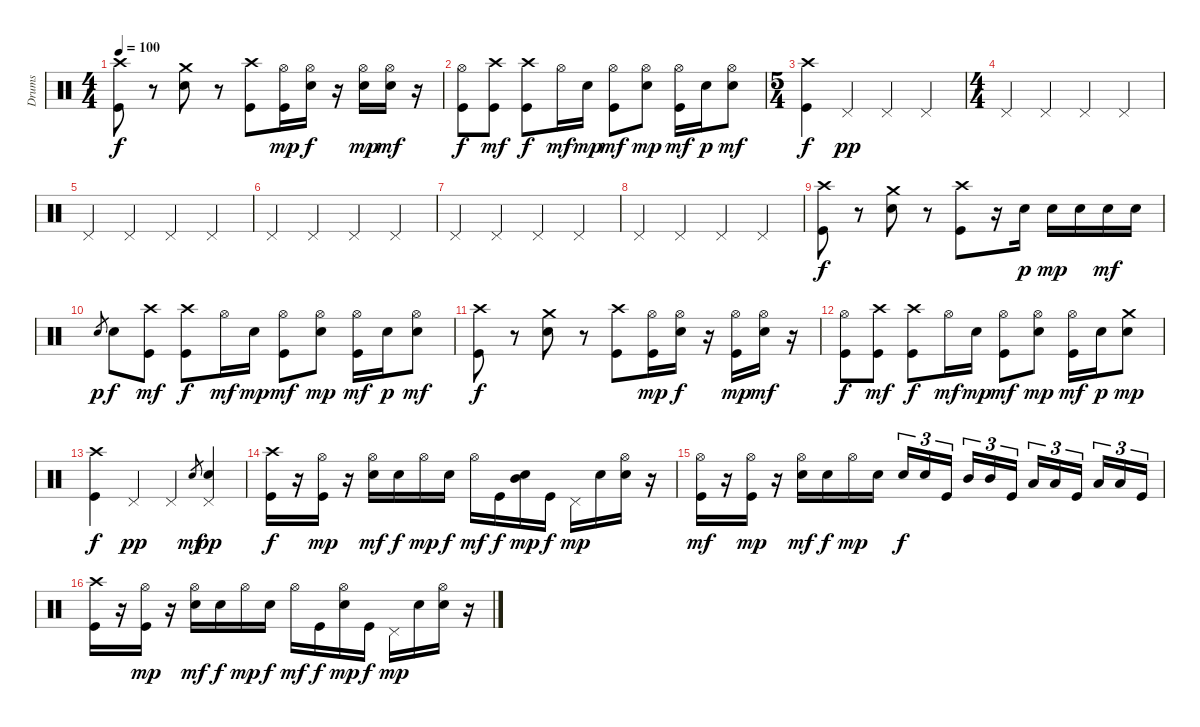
\track ("Drums" "Drums") {instrument percussion}
\staff {score}
\articulation defaults
\ts (4 4)
\tempo 100
\clef neutral
\ks c
("Crash high (hit)" "Kick (hit)").8{dy f} r.8 ("Crash medium (hit)" "Snare (hit) 2").8 r.8 ("Crash high (hit)" "Kick (hit)").8 ("Hi-Hat (open)" "Kick (hit)").16{dy mp} ("Hi-Hat (open)" "Snare (hit) 2").16{dy f} r.16 ("Hi-Hat (open)" "Snare (hit) 2").16{dy mp} ("Hi-Hat (open)" "Snare (hit) 2").16{dy mf} r.16 |
("Hi-Hat (open)" "Kick (hit)").8{dy f} ("Crash high (hit)" "Kick (hit)").8{dy mf} ("Crash high (hit)" "Kick (hit)").8{dy f} "Hi-Hat (open)".16{dy mf} "Snare (hit) 2".16{dy mp} ("Hi-Hat (open)" "Kick (hit)").8{dy mf} ("Hi-Hat (open)" "Snare (hit) 2").8{dy mp} ("Hi-Hat (open)" "Kick (hit)").16{dy mf} "Snare (hit) 2".16{dy p} ("Hi-Hat (open)" "Snare (hit) 2").8{dy mf} |
\ts (5 4)
("Crash high (hit)" "Kick (hit)").4{dy f} "Pedal Hi-Hat (hit)".4{dy pp} "Pedal Hi-Hat (hit)".4 "Pedal Hi-Hat (hit)".4 |
\ts (4 4)
"Pedal Hi-Hat (hit)".4 "Pedal Hi-Hat (hit)".4 "Pedal Hi-Hat (hit)".4 "Pedal Hi-Hat (hit)".4 |
"Pedal Hi-Hat (hit)".4 "Pedal Hi-Hat (hit)".4 "Pedal Hi-Hat (hit)".4 "Pedal Hi-Hat (hit)".4 |
"Pedal Hi-Hat (hit)".4 "Pedal Hi-Hat (hit)".4 "Pedal Hi-Hat (hit)".4 "Pedal Hi-Hat (hit)".4 |
"Pedal Hi-Hat (hit)".4 "Pedal Hi-Hat (hit)".4 "Pedal Hi-Hat (hit)".4 "Pedal Hi-Hat (hit)".4 |
"Pedal Hi-Hat (hit)".4 "Pedal Hi-Hat (hit)".4 "Pedal Hi-Hat (hit)".4 "Pedal Hi-Hat (hit)".4 |
("Crash high (hit)" "Kick (hit)").8{dy f} r.8 ("Crash medium (hit)" "Snare (hit) 2").8 r.8 ("Crash high (hit)" "Kick (hit)").8 r.16 "Snare (hit) 2".16{dy p} "Snare (hit) 2".16{dy mp} "Snare (hit) 2".16 "Snare (hit) 2".16{dy mf} "Snare (hit) 2".16 |
"Snare (hit) 2".8{gr dy p} "Snare (hit) 2".8{dy f} ("Crash high (hit)" "Kick (hit)").8{dy mf} ("Crash high (hit)" "Kick (hit)").8{dy f} "Hi-Hat (open)".16{dy mf} "Snare (hit) 2".16{dy mp} ("Hi-Hat (open)" "Kick (hit)").8{dy mf} ("Hi-Hat (open)" "Snare (hit) 2").8{dy mp} ("Hi-Hat (open)" "Kick (hit)").16{dy mf} "Snare (hit) 2".16{dy p} ("Hi-Hat (open)" "Snare (hit) 2").8{dy mf} |
("Crash high (hit)" "Kick (hit)").8{dy f} r.8 ("Crash medium (hit)" "Snare (hit) 2").8 r.8 ("Crash high (hit)" "Kick (hit)").8 ("Hi-Hat (open)" "Kick (hit)").16{dy mp} ("Hi-Hat (open)" "Snare (hit) 2").16{dy f} r.16 ("Hi-Hat (open)" "Kick (hit)").16{dy mp} ("Hi-Hat (open)" "Snare (hit) 2").16{dy mf} r.16 |
("Hi-Hat (open)" "Kick (hit)").8{dy f} ("Crash high (hit)" "Kick (hit)").8{dy mf} ("Crash high (hit)" "Kick (hit)").8{dy f} "Hi-Hat (open)".16{dy mf} "Snare (hit) 2".16{dy mp} ("Hi-Hat (open)" "Kick (hit)").8{dy mf} ("Hi-Hat (open)" "Snare (hit) 2").8{dy mp} ("Hi-Hat (open)" "Kick (hit)").16{dy mf} "Snare (hit) 2".16{dy p} ("Crash medium (hit)" "Snare (hit) 2").8{dy mp} |
("Crash high (hit)" "Kick (hit)").4{dy f} "Pedal Hi-Hat (hit)".4{dy pp} "Pedal Hi-Hat (hit)".4 "Snare (hit) 2".8{gr dy mf} ("Pedal Hi-Hat (hit)" "Snare (hit) 2").4{dy pp} |
("Crash high (hit)" "Kick (hit)").16{dy f} r.16 ("Hi-Hat (open)" "Kick (hit)").16{dy mp} r.16 ("Hi-Hat (open)" "Snare (hit) 2").16{dy mf} "Snare (hit) 2".16{dy f} "Hi-Hat (open)".16{dy mp} "Snare (hit) 2".16{dy f} "Hi-Hat (open)".16{dy mf} "Kick (hit)".16{dy f} ("Mid Tom (hit)" "Snare (hit) 2").16{dy mp} "Kick (hit)".16{dy f} "Pedal Hi-Hat (hit)".16{dy mp} "Snare (hit) 2".16 ("Hi-Hat (open)" "Snare (hit) 2").16 r.16 |
("Hi-Hat (open)" "Kick (hit)").16{dy mf} r.16 ("Hi-Hat (open)" "Kick (hit)").16{dy mp} r.16 ("Hi-Hat (open)" "Snare (hit) 2").16{dy mf} "Snare (hit) 2".16{dy f} "Hi-Hat (open)".16{dy mp} "Snare (hit) 2".16 "Snare (hit) 2".16{tu (3 2) dy f} "Snare (hit) 2".16{tu (3 2)} "Kick (hit)".16{tu (3 2) beam splitsecondary} "Mid Tom (hit)".16{tu (3 2)} "Mid Tom (hit)".16{tu (3 2)} "Kick (hit)".16{tu (3 2)} "Low Tom (hit)".16{tu (3 2)} "Low Tom (hit)".16{tu (3 2)} "Kick (hit)".16{tu (3 2) beam splitsecondary} "Low Tom (hit)".16{tu (3 2)} "Low Tom (hit)".16{tu (3 2)} "Kick (hit)".16{tu (3 2)} |
("Crash high (hit)" "Kick (hit)").16 r.16 ("Hi-Hat (open)" "Kick (hit)").16{dy mp} r.16 ("Hi-Hat (open)" "Snare (hit) 2").16{dy mf} "Snare (hit) 2".16{dy f} "Hi-Hat (open)".16{dy mp} "Snare (hit) 2".16{dy f} "Hi-Hat (open)".16{dy mf} "Kick (hit)".16{dy f} ("Hi-Hat (open)" "Snare (hit) 2").16{dy mp} "Kick (hit)".16{dy f} "Pedal Hi-Hat (hit)".16{dy mp} "Snare (hit) 2".16 ("Hi-Hat (open)" "Snare (hit) 2").16 r.16
